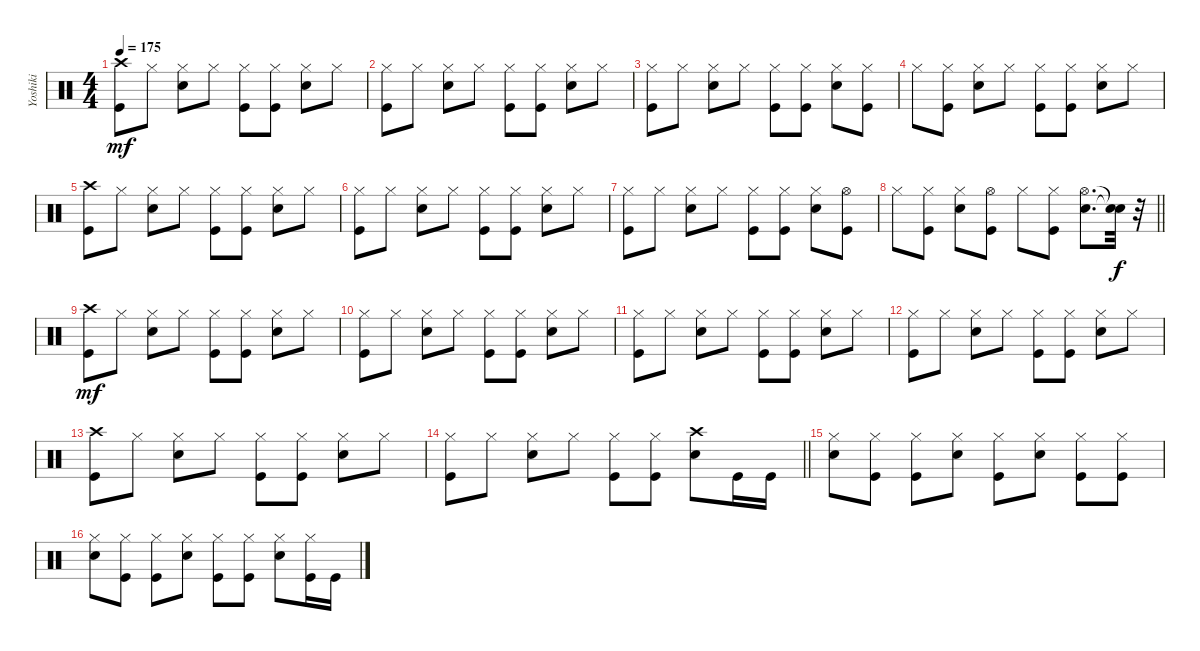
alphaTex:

\track ("Yoshiki" "Yoshiki") {instrument percussion}
\staff {score}
\articulation defaults
\ts (4 4)
\tempo 175
\clef neutral
\ks c
("Crash high (hit)" "Kick (hit)").8{dy mf} "Hi-Hat (closed)".8 ("Snare (hit) 2" "Hi-Hat (closed)").8 "Hi-Hat (closed)".8 ("Hi-Hat (closed)" "Kick (hit)").8 ("Hi-Hat (closed)" "Kick (hit)").8 ("Snare (hit) 2" "Hi-Hat (closed)").8 "Hi-Hat (closed)".8 |
("Hi-Hat (closed)" "Kick (hit)").8 "Hi-Hat (closed)".8 ("Snare (hit) 2" "Hi-Hat (closed)").8 "Hi-Hat (closed)".8 ("Hi-Hat (closed)" "Kick (hit)").8 ("Hi-Hat (closed)" "Kick (hit)").8 ("Snare (hit) 2" "Hi-Hat (closed)").8 "Hi-Hat (closed)".8 |
("Hi-Hat (closed)" "Kick (hit)").8 "Hi-Hat (closed)".8 ("Snare (hit) 2" "Hi-Hat (closed)").8 "Hi-Hat (closed)".8 ("Hi-Hat (closed)" "Kick (hit)").8 ("Hi-Hat (closed)" "Kick (hit)").8 ("Snare (hit) 2" "Hi-Hat (closed)").8 ("Hi-Hat (closed)" "Kick (hit)").8 |
"Hi-Hat (closed)".8 ("Hi-Hat (closed)" "Kick (hit)").8 ("Snare (hit) 2" "Hi-Hat (closed)").8 "Hi-Hat (closed)".8 ("Kick (hit)" "Hi-Hat (closed)").8 ("Kick (hit)" "Hi-Hat (closed)").8 ("Snare (hit) 2" "Hi-Hat (closed)").8 "Hi-Hat (closed)".8 |
("Crash high (hit)" "Kick (hit)").8 "Hi-Hat (closed)".8 ("Snare (hit) 2" "Hi-Hat (closed)").8 "Hi-Hat (closed)".8 ("Hi-Hat (closed)" "Kick (hit)").8 ("Hi-Hat (closed)" "Kick (hit)").8 ("Snare (hit) 2" "Hi-Hat (closed)").8 "Hi-Hat (closed)".8 |
("Hi-Hat (closed)" "Kick (hit)").8 "Hi-Hat (closed)".8 ("Snare (hit) 2" "Hi-Hat (closed)").8 "Hi-Hat (closed)".8 ("Hi-Hat (closed)" "Kick (hit)").8 ("Hi-Hat (closed)" "Kick (hit)").8 ("Snare (hit) 2" "Hi-Hat (closed)").8 "Hi-Hat (closed)".8 |
("Hi-Hat (closed)" "Kick (hit)").8 "Hi-Hat (closed)".8 ("Snare (hit) 2" "Hi-Hat (closed)").8 "Hi-Hat (closed)".8 ("Hi-Hat (closed)" "Kick (hit)").8 ("Hi-Hat (closed)" "Kick (hit)").8 ("Snare (hit) 2" "Hi-Hat (closed)").8 ("Hi-Hat (open)" "Kick (hit)").8 |
\barLineRight lightlight "Hi-Hat (closed)".8
("Hi-Hat (closed)" "Kick (hit)").8 ("Snare (hit) 2" "Hi-Hat (closed)").8 ("Hi-Hat (open)" "Kick (hit)").8 "Hi-Hat (closed)".8 ("Hi-Hat (closed)" "Kick (hit)").8 ("Snare (hit) 2" "Hi-Hat (open)").8{d} ("Snare (hit)"{t} "Snare (hit)"{t}).32{dy f} r.32 |
("Crash high (hit)" "Kick (hit)").8{dy mf} "Hi-Hat (closed)".8 ("Snare (hit) 2" "Hi-Hat (closed)").8 "Hi-Hat (closed)".8 ("Hi-Hat (closed)" "Kick (hit)").8 ("Hi-Hat (closed)" "Kick (hit)").8 ("Snare (hit) 2" "Hi-Hat (closed)").8 "Hi-Hat (closed)".8 |
("Hi-Hat (closed)" "Kick (hit)").8 "Hi-Hat (closed)".8 ("Snare (hit) 2" "Hi-Hat (closed)").8 "Hi-Hat (closed)".8 ("Hi-Hat (closed)" "Kick (hit)").8 ("Hi-Hat (closed)" "Kick (hit)").8 ("Snare (hit) 2" "Hi-Hat (closed)").8 "Hi-Hat (closed)".8 |
("Hi-Hat (closed)" "Kick (hit)").8 "Hi-Hat (closed)".8 ("Snare (hit) 2" "Hi-Hat (closed)").8 "Hi-Hat (closed)".8 ("Hi-Hat (closed)" "Kick (hit)").8 ("Hi-Hat (closed)" "Kick (hit)").8 ("Snare (hit) 2" "Hi-Hat (closed)").8 "Hi-Hat (closed)".8 |
("Hi-Hat (closed)" "Kick (hit)").8 "Hi-Hat (closed)".8 ("Snare (hit) 2" "Hi-Hat (closed)").8 "Hi-Hat (closed)".8 ("Hi-Hat (closed)" "Kick (hit)").8 ("Hi-Hat (closed)" "Kick (hit)").8 ("Snare (hit) 2" "Hi-Hat (closed)").8 "Hi-Hat (closed)".8 |
("Crash high (hit)" "Kick (hit)").8 "Hi-Hat (closed)".8 ("Snare (hit) 2" "Hi-Hat (closed)").8 "Hi-Hat (closed)".8 ("Hi-Hat (closed)" "Kick (hit)").8 ("Hi-Hat (closed)" "Kick (hit)").8 ("Snare (hit) 2" "Hi-Hat (closed)").8 "Hi-Hat (closed)".8 |
\barLineRight lightlight
("Hi-Hat (closed)" "Kick (hit)").8 "Hi-Hat (closed)".8 ("Snare (hit) 2" "Hi-Hat (closed)").8 "Hi-Hat (closed)".8 ("Hi-Hat (closed)" "Kick (hit)").8 ("Hi-Hat (closed)" "Kick (hit)").8 ("Snare (hit) 2" "Crash high (hit)").8 "Kick (hit)".16 "Kick (hit)".16 |
("Snare (hit) 2" "Hi-Hat (closed)").8 ("Hi-Hat (closed)" "Kick (hit)").8 ("Hi-Hat (closed)" "Kick (hit)").8 ("Snare (hit) 2" "Hi-Hat (closed)").8 ("Hi-Hat (closed)" "Kick (hit)").8 ("Snare (hit) 2" "Hi-Hat (closed)").8 ("Hi-Hat (closed)" "Kick (hit)").8 ("Hi-Hat (closed)" "Kick (hit)").8 |
("Snare (hit) 2" "Hi-Hat (closed)").8 ("Hi-Hat (closed)" "Kick (hit)").8 ("Hi-Hat (closed)" "Kick (hit)").8 ("Snare (hit) 2" "Hi-Hat (closed)").8 ("Hi-Hat (closed)" "Kick (hit)").8 ("Hi-Hat (closed)" "Kick (hit)").8 ("Snare (hit) 2" "Hi-Hat (closed)").8 ("Kick (hit)" "Hi-Hat (closed)").16 "Kick (hit)".16
